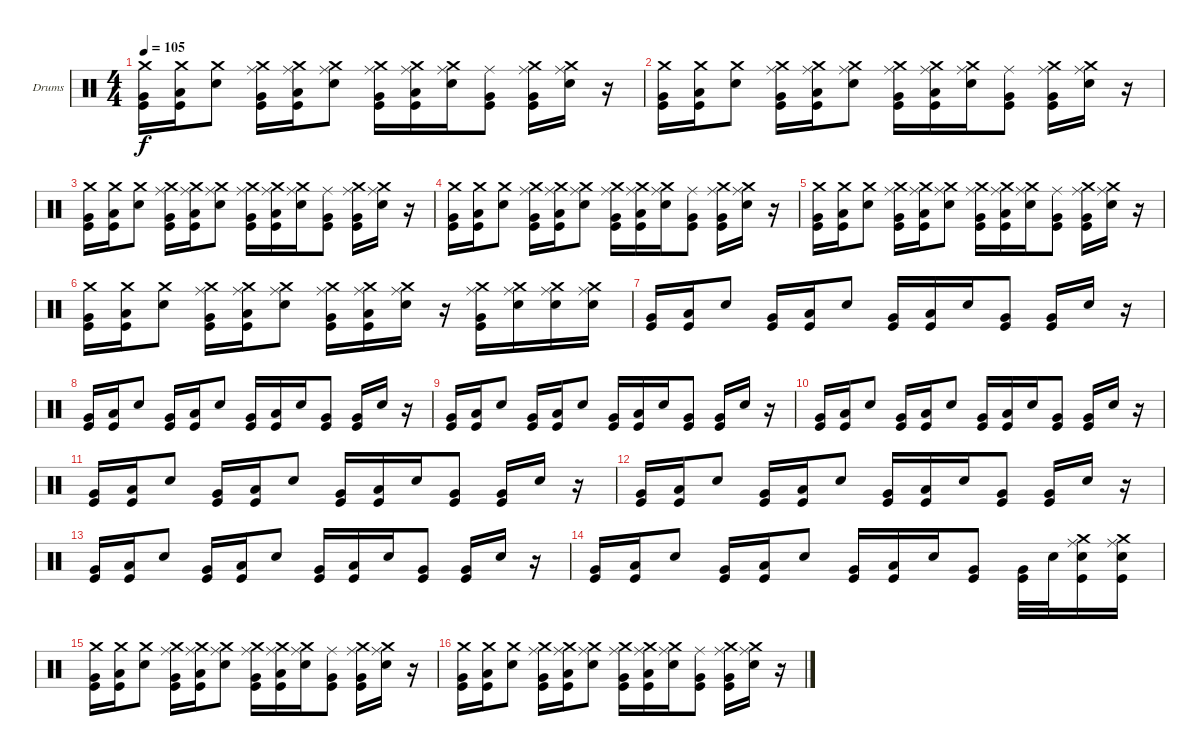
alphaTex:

\defaultSystemsLayout 4
\bracketExtendMode groupsimilarinstruments
\firstSystemTrackNameOrientation horizontal
\otherSystemsTrackNameOrientation horizontal
\track ("Steve" "Drums") {instrument percussion}
\staff {score}
\articulation defaults
\ts (4 4)
\tempo 105
\clef neutral
\ks c
("Very Low Tom (hit)" "Crash medium (hit)" "Kick (hit)").16{dy f} ("Low Tom (hit)" "Crash medium (hit)" "Kick (hit)").16 ("Snare (hit) 2" "Crash medium (hit)").8 ("Very Low Tom (hit)" "Ride (middle)" "Kick (hit)" "Crash medium (hit)").16 ("Low Tom (hit)" "Ride (middle)" "Kick (hit)" "Crash medium (hit)").16 ("Snare (hit) 2" "Ride (middle)" "Crash medium (hit)").8 ("Very Low Tom (hit)" "Ride (middle)" "Kick (hit)" "Crash medium (hit)").16 ("Low Tom (hit)" "Ride (middle)" "Kick (hit)" "Crash medium (hit)").16 ("Snare (hit) 2" "Ride (middle)" "Crash medium (hit)").16 ("Very Low Tom (hit)" "Ride (middle)" "Kick (hit)").8 ("Very Low Tom (hit)" "Ride (middle)" "Kick (hit)" "Crash medium (hit)").16 ("Snare (hit) 2" "Ride (middle)" "Crash medium (hit)").16 r.16 |
("Very Low Tom (hit)" "Crash medium (hit)" "Kick (hit)").16 ("Low Tom (hit)" "Crash medium (hit)" "Kick (hit)").16 ("Snare (hit) 2" "Crash medium (hit)").8 ("Very Low Tom (hit)" "Ride (middle)" "Kick (hit)" "Crash medium (hit)").16 ("Low Tom (hit)" "Ride (middle)" "Kick (hit)" "Crash medium (hit)").16 ("Snare (hit) 2" "Ride (middle)" "Crash medium (hit)").8 ("Very Low Tom (hit)" "Ride (middle)" "Kick (hit)" "Crash medium (hit)").16 ("Low Tom (hit)" "Ride (middle)" "Kick (hit)" "Crash medium (hit)").16 ("Snare (hit) 2" "Ride (middle)" "Crash medium (hit)").16 ("Very Low Tom (hit)" "Ride (middle)" "Kick (hit)").8 ("Very Low Tom (hit)" "Ride (middle)" "Kick (hit)" "Crash medium (hit)").16 ("Snare (hit) 2" "Ride (middle)" "Crash medium (hit)").16 r.16 |
("Very Low Tom (hit)" "Crash medium (hit)" "Kick (hit)").16 ("Low Tom (hit)" "Crash medium (hit)" "Kick (hit)").16 ("Snare (hit) 2" "Crash medium (hit)").8 ("Very Low Tom (hit)" "Ride (middle)" "Kick (hit)" "Crash medium (hit)").16 ("Low Tom (hit)" "Ride (middle)" "Kick (hit)" "Crash medium (hit)").16 ("Snare (hit) 2" "Ride (middle)" "Crash medium (hit)").8 ("Very Low Tom (hit)" "Ride (middle)" "Kick (hit)" "Crash medium (hit)").16 ("Low Tom (hit)" "Ride (middle)" "Kick (hit)" "Crash medium (hit)").16 ("Snare (hit) 2" "Ride (middle)" "Crash medium (hit)").16 ("Very Low Tom (hit)" "Ride (middle)" "Kick (hit)").8 ("Very Low Tom (hit)" "Ride (middle)" "Kick (hit)" "Crash medium (hit)").16 ("Snare (hit) 2" "Ride (middle)" "Crash medium (hit)").16 r.16 |
("Very Low Tom (hit)" "Crash medium (hit)" "Kick (hit)").16 ("Low Tom (hit)" "Crash medium (hit)" "Kick (hit)").16 ("Snare (hit) 2" "Crash medium (hit)").8 ("Very Low Tom (hit)" "Ride (middle)" "Kick (hit)" "Crash medium (hit)").16 ("Low Tom (hit)" "Ride (middle)" "Kick (hit)" "Crash medium (hit)").16 ("Snare (hit) 2" "Ride (middle)" "Crash medium (hit)").8 ("Very Low Tom (hit)" "Ride (middle)" "Kick (hit)" "Crash medium (hit)").16 ("Low Tom (hit)" "Ride (middle)" "Kick (hit)" "Crash medium (hit)").16 ("Snare (hit) 2" "Ride (middle)" "Crash medium (hit)").16 ("Very Low Tom (hit)" "Ride (middle)" "Kick (hit)").8 ("Very Low Tom (hit)" "Ride (middle)" "Kick (hit)" "Crash medium (hit)").16 ("Snare (hit) 2" "Ride (middle)" "Crash medium (hit)").16 r.16 |
("Very Low Tom (hit)" "Crash medium (hit)" "Kick (hit)").16 ("Low Tom (hit)" "Crash medium (hit)" "Kick (hit)").16 ("Snare (hit) 2" "Crash medium (hit)").8 ("Very Low Tom (hit)" "Ride (middle)" "Kick (hit)" "Crash medium (hit)").16 ("Low Tom (hit)" "Ride (middle)" "Kick (hit)" "Crash medium (hit)").16 ("Snare (hit) 2" "Ride (middle)" "Crash medium (hit)").8 ("Very Low Tom (hit)" "Ride (middle)" "Kick (hit)" "Crash medium (hit)").16 ("Low Tom (hit)" "Ride (middle)" "Kick (hit)" "Crash medium (hit)").16 ("Snare (hit) 2" "Ride (middle)" "Crash medium (hit)").16 ("Very Low Tom (hit)" "Ride (middle)" "Kick (hit)").8 ("Very Low Tom (hit)" "Ride (middle)" "Kick (hit)" "Crash medium (hit)").16 ("Snare (hit) 2" "Ride (middle)" "Crash medium (hit)").16 r.16 |
("Very Low Tom (hit)" "Crash medium (hit)" "Kick (hit)").16 ("Low Tom (hit)" "Crash medium (hit)" "Kick (hit)").16 ("Snare (hit) 2" "Crash medium (hit)").8 ("Very Low Tom (hit)" "Ride (middle)" "Kick (hit)" "Crash medium (hit)").16 ("Low Tom (hit)" "Ride (middle)" "Kick (hit)" "Crash medium (hit)").16 ("Snare (hit) 2" "Ride (middle)" "Crash medium (hit)").8 ("Very Low Tom (hit)" "Ride (middle)" "Kick (hit)" "Crash medium (hit)").16 ("Low Tom (hit)" "Ride (middle)" "Kick (hit)" "Crash medium (hit)").16 ("Snare (hit) 2" "Ride (middle)" "Crash medium (hit)").16 r.16 ("Very Low Tom (hit)" "Ride (middle)" "Kick (hit)" "Crash medium (hit)").16 ("Snare (hit) 2" "Ride (middle)" "Crash medium (hit)").16 ("Snare (hit) 2" "Ride (middle)" "Crash medium (hit)").16 ("Snare (hit) 2" "Ride (middle)" "Crash medium (hit)").16 |
("Very Low Tom (hit)" "Kick (hit)").16 ("Low Tom (hit)" "Kick (hit)").16 "Snare (hit) 2".8 ("Very Low Tom (hit)" "Kick (hit)").16 ("Low Tom (hit)" "Kick (hit)").16 "Snare (hit) 2".8 ("Very Low Tom (hit)" "Kick (hit)").16 ("Low Tom (hit)" "Kick (hit)").16 "Snare (hit) 2".16 ("Very Low Tom (hit)" "Kick (hit)").8 ("Very Low Tom (hit)" "Kick (hit)").16 "Snare (hit) 2".16 r.16 |
("Very Low Tom (hit)" "Kick (hit)").16 ("Low Tom (hit)" "Kick (hit)").16 "Snare (hit) 2".8 ("Very Low Tom (hit)" "Kick (hit)").16 ("Low Tom (hit)" "Kick (hit)").16 "Snare (hit) 2".8 ("Very Low Tom (hit)" "Kick (hit)").16 ("Low Tom (hit)" "Kick (hit)").16 "Snare (hit) 2".16 ("Very Low Tom (hit)" "Kick (hit)").8 ("Very Low Tom (hit)" "Kick (hit)").16 "Snare (hit) 2".16 r.16 |
("Very Low Tom (hit)" "Kick (hit)").16 ("Low Tom (hit)" "Kick (hit)").16 "Snare (hit) 2".8 ("Very Low Tom (hit)" "Kick (hit)").16 ("Low Tom (hit)" "Kick (hit)").16 "Snare (hit) 2".8 ("Very Low Tom (hit)" "Kick (hit)").16 ("Low Tom (hit)" "Kick (hit)").16 "Snare (hit) 2".16 ("Very Low Tom (hit)" "Kick (hit)").8 ("Very Low Tom (hit)" "Kick (hit)").16 "Snare (hit) 2".16 r.16 |
("Very Low Tom (hit)" "Kick (hit)").16 ("Low Tom (hit)" "Kick (hit)").16 "Snare (hit) 2".8 ("Very Low Tom (hit)" "Kick (hit)").16 ("Low Tom (hit)" "Kick (hit)").16 "Snare (hit) 2".8 ("Very Low Tom (hit)" "Kick (hit)").16 ("Low Tom (hit)" "Kick (hit)").16 "Snare (hit) 2".16 ("Very Low Tom (hit)" "Kick (hit)").8 ("Very Low Tom (hit)" "Kick (hit)").16 "Snare (hit) 2".16 r.16 |
("Very Low Tom (hit)" "Kick (hit)").16 ("Low Tom (hit)" "Kick (hit)").16 "Snare (hit) 2".8 ("Very Low Tom (hit)" "Kick (hit)").16 ("Low Tom (hit)" "Kick (hit)").16 "Snare (hit) 2".8 ("Very Low Tom (hit)" "Kick (hit)").16 ("Low Tom (hit)" "Kick (hit)").16 "Snare (hit) 2".16 ("Very Low Tom (hit)" "Kick (hit)").8 ("Very Low Tom (hit)" "Kick (hit)").16 "Snare (hit) 2".16 r.16 |
("Very Low Tom (hit)" "Kick (hit)").16 ("Low Tom (hit)" "Kick (hit)").16 "Snare (hit) 2".8 ("Very Low Tom (hit)" "Kick (hit)").16 ("Low Tom (hit)" "Kick (hit)").16 "Snare (hit) 2".8 ("Very Low Tom (hit)" "Kick (hit)").16 ("Low Tom (hit)" "Kick (hit)").16 "Snare (hit) 2".16 ("Very Low Tom (hit)" "Kick (hit)").8 ("Very Low Tom (hit)" "Kick (hit)").16 "Snare (hit) 2".16 r.16 |
("Very Low Tom (hit)" "Kick (hit)").16 ("Low Tom (hit)" "Kick (hit)").16 "Snare (hit) 2".8 ("Very Low Tom (hit)" "Kick (hit)").16 ("Low Tom (hit)" "Kick (hit)").16 "Snare (hit) 2".8 ("Very Low Tom (hit)" "Kick (hit)").16 ("Low Tom (hit)" "Kick (hit)").16 "Snare (hit) 2".16 ("Very Low Tom (hit)" "Kick (hit)").8 ("Very Low Tom (hit)" "Kick (hit)").16 "Snare (hit) 2".16 r.16 |
("Very Low Tom (hit)" "Kick (hit)").16 ("Low Tom (hit)" "Kick (hit)").16 "Snare (hit) 2".8 ("Very Low Tom (hit)" "Kick (hit)").16 ("Low Tom (hit)" "Kick (hit)").16 "Snare (hit) 2".8 ("Very Low Tom (hit)" "Kick (hit)").16 ("Low Tom (hit)" "Kick (hit)").16 "Snare (hit) 2".16 ("Very Low Tom (hit)" "Kick (hit)").8 ("Very Low Tom (hit)" "Kick (hit)").32 "Snare (hit) 2".32 ("Snare (hit) 2" "Kick (hit)" "Crash medium (hit)" "Ride (middle)").16 ("Snare (hit) 2" "Kick (hit)" "Crash medium (hit)" "Ride (middle)").16 |
("Very Low Tom (hit)" "Crash medium (hit)" "Kick (hit)").16 ("Low Tom (hit)" "Crash medium (hit)" "Kick (hit)").16 ("Snare (hit) 2" "Crash medium (hit)").8 ("Very Low Tom (hit)" "Ride (middle)" "Kick (hit)" "Crash medium (hit)").16 ("Low Tom (hit)" "Ride (middle)" "Kick (hit)" "Crash medium (hit)").16 ("Snare (hit) 2" "Ride (middle)" "Crash medium (hit)").8 ("Very Low Tom (hit)" "Ride (middle)" "Kick (hit)" "Crash medium (hit)").16 ("Low Tom (hit)" "Ride (middle)" "Kick (hit)" "Crash medium (hit)").16 ("Snare (hit) 2" "Ride (middle)" "Crash medium (hit)").16 ("Very Low Tom (hit)" "Ride (middle)" "Kick (hit)").8 ("Very Low Tom (hit)" "Ride (middle)" "Kick (hit)" "Crash medium (hit)").16 ("Snare (hit) 2" "Ride (middle)" "Crash medium (hit)").16 r.16 |
("Very Low Tom (hit)" "Crash medium (hit)" "Kick (hit)").16 ("Low Tom (hit)" "Crash medium (hit)" "Kick (hit)").16 ("Snare (hit) 2" "Crash medium (hit)").8 ("Very Low Tom (hit)" "Ride (middle)" "Kick (hit)" "Crash medium (hit)").16 ("Low Tom (hit)" "Ride (middle)" "Kick (hit)" "Crash medium (hit)").16 ("Snare (hit) 2" "Ride (middle)" "Crash medium (hit)").8 ("Very Low Tom (hit)" "Ride (middle)" "Kick (hit)" "Crash medium (hit)").16 ("Low Tom (hit)" "Ride (middle)" "Kick (hit)" "Crash medium (hit)").16 ("Snare (hit) 2" "Ride (middle)" "Crash medium (hit)").16 ("Very Low Tom (hit)" "Ride (middle)" "Kick (hit)").8 ("Very Low Tom (hit)" "Ride (middle)" "Kick (hit)" "Crash medium (hit)").16 ("Snare (hit) 2" "Ride (middle)" "Crash medium (hit)").16 r.16
